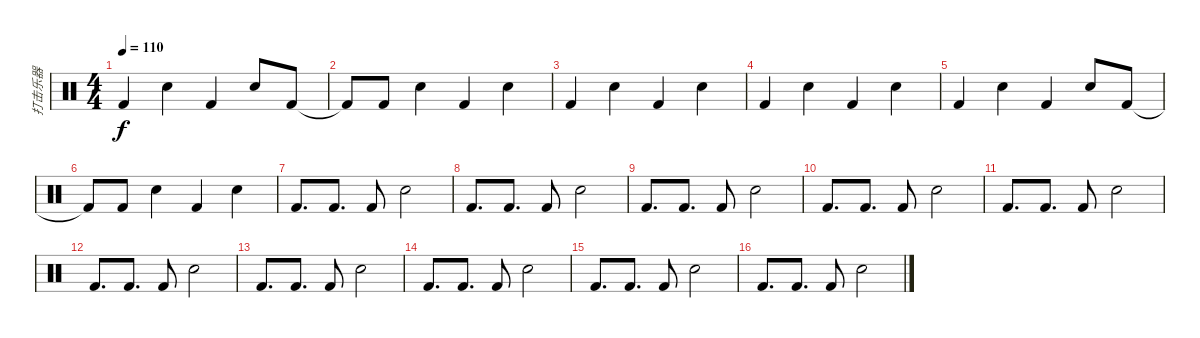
\track ("打击乐器" "打击乐器") {instrument percussion}
\staff {score}
\articulation defaults
\ts (4 4)
\tempo 110
\clef neutral
\ks c "Kick (hit) 2".4{dy f} "Snare (hit) 2".4 "Kick (hit) 2".4 "Snare (hit) 2".8 "Kick (hit) 2".8
|
"Kick (hit) 2"{t}.8 "Kick (hit) 2".8 "Snare (hit) 2".4 "Kick (hit) 2".4 "Snare (hit) 2".4 |
"Kick (hit) 2".4 "Snare (hit) 2".4 "Kick (hit) 2".4 "Snare (hit) 2".4 |
"Kick (hit) 2".4 "Snare (hit) 2".4 "Kick (hit) 2".4 "Snare (hit) 2".4 |
"Kick (hit) 2".4 "Snare (hit) 2".4 "Kick (hit) 2".4 "Snare (hit) 2".8 "Kick (hit) 2".8 |
"Kick (hit) 2"{t}.8 "Kick (hit) 2".8 "Snare (hit) 2".4 "Kick (hit) 2".4 "Snare (hit) 2".4 |
"Kick (hit) 2".8{d} "Kick (hit) 2".8{d} "Kick (hit) 2".8 "Snare (hit) 2".2 |
"Kick (hit) 2".8{d} "Kick (hit) 2".8{d} "Kick (hit) 2".8 "Snare (hit) 2".2 |
"Kick (hit) 2".8{d} "Kick (hit) 2".8{d} "Kick (hit) 2".8 "Snare (hit) 2".2 |
"Kick (hit) 2".8{d} "Kick (hit) 2".8{d} "Kick (hit) 2".8 "Snare (hit) 2".2 |
"Kick (hit) 2".8{d} "Kick (hit) 2".8{d} "Kick (hit) 2".8 "Snare (hit) 2".2 |
"Kick (hit) 2".8{d} "Kick (hit) 2".8{d} "Kick (hit) 2".8 "Snare (hit) 2".2 |
"Kick (hit) 2".8{d} "Kick (hit) 2".8{d} "Kick (hit) 2".8 "Snare (hit) 2".2 |
"Kick (hit) 2".8{d} "Kick (hit) 2".8{d} "Kick (hit) 2".8 "Snare (hit) 2".2 |
"Kick (hit) 2".8{d} "Kick (hit) 2".8{d} "Kick (hit) 2".8 "Snare (hit) 2".2 |
"Kick (hit) 2".8{d} "Kick (hit) 2".8{d} "Kick (hit) 2".8 "Snare (hit) 2".2
